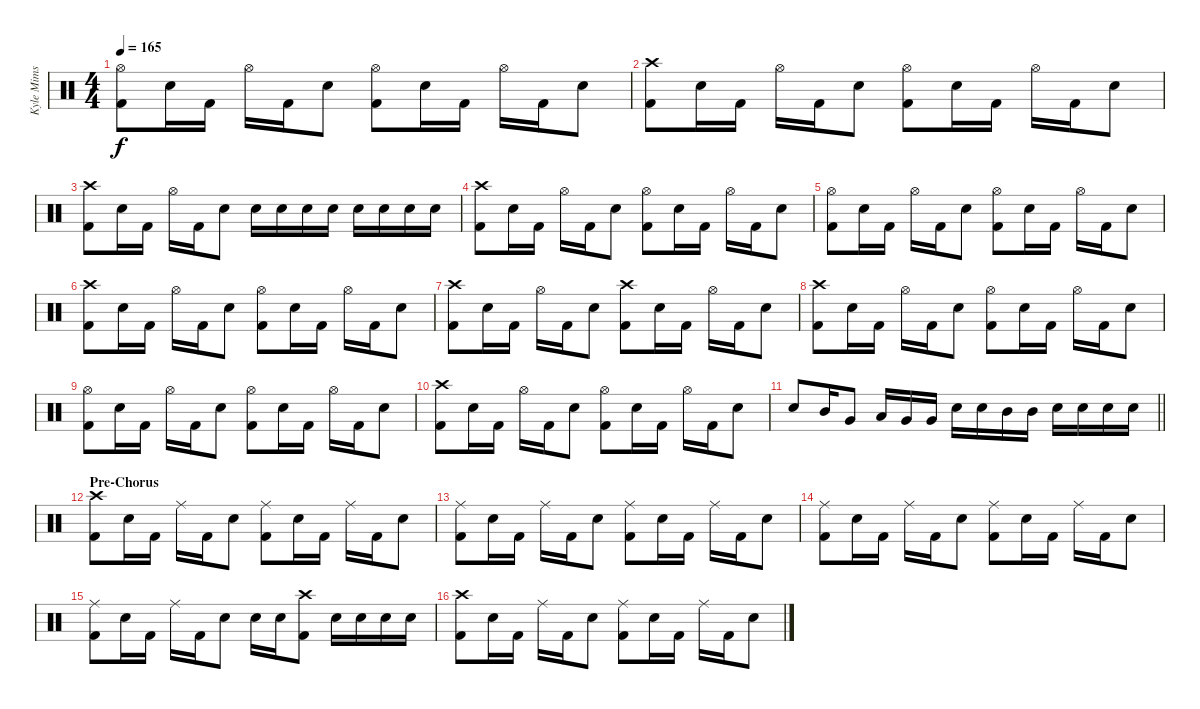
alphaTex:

\track ("Kyle Mims" "Kyle Mims") {instrument percussion}
\staff {score}
\articulation defaults
\ts (4 4)
\tempo 165
\clef neutral
\ks c
("Hi-Hat (open)" "Kick (hit) 2").8{dy f} "Electric Snare (hit)".16 "Kick (hit) 2".16 "Hi-Hat (open)".16 "Kick (hit) 2".16 "Electric Snare (hit)".8 ("Hi-Hat (open)" "Kick (hit) 2").8 "Electric Snare (hit)".16 "Kick (hit) 2".16 "Hi-Hat (open)".16 "Kick (hit) 2".16 "Electric Snare (hit)".8 |
("Crash high (hit)" "Kick (hit) 2").8 "Electric Snare (hit)".16 "Kick (hit) 2".16 "Hi-Hat (open)".16 "Kick (hit) 2".16 "Electric Snare (hit)".8 ("Hi-Hat (open)" "Kick (hit) 2").8 "Electric Snare (hit)".16 "Kick (hit) 2".16 "Hi-Hat (open)".16 "Kick (hit) 2".16 "Electric Snare (hit)".8 |
("Crash high (hit)" "Kick (hit) 2").8 "Electric Snare (hit)".16 "Kick (hit) 2".16 "Hi-Hat (open)".16 "Kick (hit) 2".16 "Electric Snare (hit)".8 "Electric Snare (hit)".16 "Electric Snare (hit)".16 "Electric Snare (hit)".16 "Electric Snare (hit)".16 "Electric Snare (hit)".16 "Electric Snare (hit)".16 "Electric Snare (hit)".16 "Electric Snare (hit)".16 |
("Crash high (hit)" "Kick (hit) 2").8 "Electric Snare (hit)".16 "Kick (hit) 2".16 "Hi-Hat (open)".16 "Kick (hit) 2".16 "Electric Snare (hit)".8 ("Hi-Hat (open)" "Kick (hit) 2").8 "Electric Snare (hit)".16 "Kick (hit) 2".16 "Hi-Hat (open)".16 "Kick (hit) 2".16 "Electric Snare (hit)".8 |
("Hi-Hat (open)" "Kick (hit) 2").8 "Electric Snare (hit)".16 "Kick (hit) 2".16 "Hi-Hat (open)".16 "Kick (hit) 2".16 "Electric Snare (hit)".8 ("Hi-Hat (open)" "Kick (hit) 2").8 "Electric Snare (hit)".16 "Kick (hit) 2".16 "Hi-Hat (open)".16 "Kick (hit) 2".16 "Electric Snare (hit)".8 |
("Crash high (hit)" "Kick (hit) 2").8 "Electric Snare (hit)".16 "Kick (hit) 2".16 "Hi-Hat (open)".16 "Kick (hit) 2".16 "Electric Snare (hit)".8 ("Hi-Hat (open)" "Kick (hit) 2").8 "Electric Snare (hit)".16 "Kick (hit) 2".16 "Hi-Hat (open)".16 "Kick (hit) 2".16 "Electric Snare (hit)".8 |
("Crash high (hit)" "Kick (hit) 2").8 "Electric Snare (hit)".16 "Kick (hit) 2".16 "Hi-Hat (open)".16 "Kick (hit) 2".16 "Electric Snare (hit)".8 ("Crash high (hit)" "Kick (hit) 2").8 "Electric Snare (hit)".16 "Kick (hit) 2".16 "Hi-Hat (open)".16 "Kick (hit) 2".16 "Electric Snare (hit)".8 |
("Crash high (hit)" "Kick (hit) 2").8 "Electric Snare (hit)".16 "Kick (hit) 2".16 "Hi-Hat (open)".16 "Kick (hit) 2".16 "Electric Snare (hit)".8 ("Hi-Hat (open)" "Kick (hit) 2").8 "Electric Snare (hit)".16 "Kick (hit) 2".16 "Hi-Hat (open)".16 "Kick (hit) 2".16 "Electric Snare (hit)".8 |
("Hi-Hat (open)" "Kick (hit) 2").8 "Electric Snare (hit)".16 "Kick (hit) 2".16 "Hi-Hat (open)".16 "Kick (hit) 2".16 "Electric Snare (hit)".8 ("Hi-Hat (open)" "Kick (hit) 2").8 "Electric Snare (hit)".16 "Kick (hit) 2".16 "Hi-Hat (open)".16 "Kick (hit) 2".16 "Electric Snare (hit)".8 |
("Crash high (hit)" "Kick (hit) 2").8 "Electric Snare (hit)".16 "Kick (hit) 2".16 "Hi-Hat (open)".16 "Kick (hit) 2".16 "Electric Snare (hit)".8 ("Hi-Hat (open)" "Kick (hit) 2").8 "Electric Snare (hit)".16 "Kick (hit) 2".16 "Hi-Hat (open)".16 "Kick (hit) 2".16 "Electric Snare (hit)".8 |
\barLineRight lightlight "Electric Snare (hit)".8 "Mid Tom (hit)".16 "Very Low Tom (hit)".8 "Low Tom (hit)".16 "Very Low Tom (hit)".16 "Very Low Tom (hit)".16 "Electric Snare (hit)".16 "Electric Snare (hit)".16 "Mid Tom (hit)".16 "Mid Tom (hit)".16 "Electric Snare (hit)".16 "Electric Snare (hit)".16 "Electric Snare (hit)".16 "Electric Snare (hit)".16
|
\section ("" "Pre-Chorus")
("Crash high (hit)" "Kick (hit) 2").8 "Electric Snare (hit)".16 "Kick (hit) 2".16 "Ride (middle)".16 "Kick (hit) 2".16 "Electric Snare (hit)".8 ("Ride (middle)" "Kick (hit) 2").8 "Electric Snare (hit)".16 "Kick (hit) 2".16 "Ride (middle)".16 "Kick (hit) 2".16 "Electric Snare (hit)".8 |
("Ride (middle)" "Kick (hit) 2").8 "Electric Snare (hit)".16 "Kick (hit) 2".16 "Ride (middle)".16 "Kick (hit) 2".16 "Electric Snare (hit)".8 ("Ride (middle)" "Kick (hit) 2").8 "Electric Snare (hit)".16 "Kick (hit) 2".16 "Ride (middle)".16 "Kick (hit) 2".16 "Electric Snare (hit)".8 |
("Ride (middle)" "Kick (hit) 2").8 "Electric Snare (hit)".16 "Kick (hit) 2".16 "Ride (middle)".16 "Kick (hit) 2".16 "Electric Snare (hit)".8 ("Ride (middle)" "Kick (hit) 2").8 "Electric Snare (hit)".16 "Kick (hit) 2".16 "Ride (middle)".16 "Kick (hit) 2".16 "Electric Snare (hit)".8 |
("Ride (middle)" "Kick (hit) 2").8 "Electric Snare (hit)".16 "Kick (hit) 2".16 "Ride (middle)".16 "Kick (hit) 2".16 "Electric Snare (hit)".8 "Electric Snare (hit)".16 "Electric Snare (hit)".16 ("Crash high (hit)" "Kick (hit) 2").8 "Electric Snare (hit)".16 "Electric Snare (hit)".16 "Electric Snare (hit)".16 "Electric Snare (hit)".16 |
("Crash high (hit)" "Kick (hit) 2").8 "Electric Snare (hit)".16 "Kick (hit) 2".16 "Ride (middle)".16 "Kick (hit) 2".16 "Electric Snare (hit)".8 ("Ride (middle)" "Kick (hit) 2").8 "Electric Snare (hit)".16 "Kick (hit) 2".16 "Ride (middle)".16 "Kick (hit) 2".16 "Electric Snare (hit)".8
